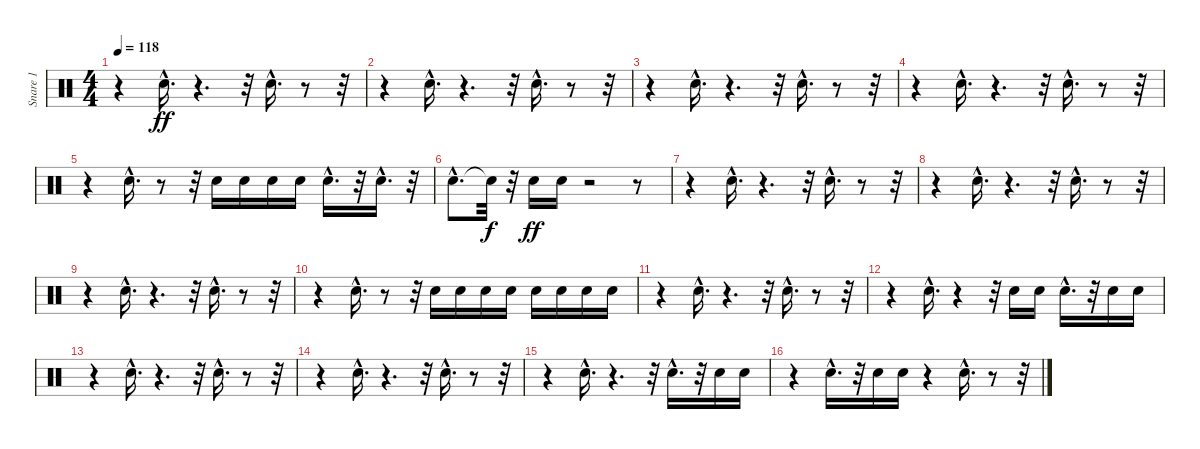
\track ("Snare 1             " "Snare 1   ") {instrument percussion}
\staff {score}
\articulation defaults
\ts (4 4)
\tempo 118
\clef neutral
\ks c
r.4{dy ff} "Snare (hit) 2"{hac}.16{d} r.4{d} r.32 "Snare (hit) 2"{hac}.16{d} r.8 r.32 |
r.4 "Snare (hit) 2"{hac}.16{d} r.4{d} r.32 "Snare (hit) 2"{hac}.16{d} r.8 r.32 |
r.4 "Snare (hit) 2"{hac}.16{d} r.4{d} r.32 "Snare (hit) 2"{hac}.16{d} r.8 r.32 |
r.4 "Snare (hit) 2"{hac}.16{d} r.4{d} r.32 "Snare (hit) 2"{hac}.16{d} r.8 r.32 |
r.4 "Snare (hit) 2"{hac}.16{d} r.8 r.32 "Snare (hit) 2".16 "Snare (hit) 2".16 "Snare (hit) 2".16 "Snare (hit) 2".16 "Snare (hit) 2"{hac}.16{d} r.32 "Snare (hit) 2"{hac}.16{d} r.32 |
"Snare (hit) 2"{hac}.8{d} "Snare (hit)"{t}.32{dy f} r.32 "Snare (hit) 2".16{dy ff} "Snare (hit) 2".16 r.2 r.8 |
r.4 "Snare (hit) 2"{hac}.16{d} r.4{d} r.32 "Snare (hit) 2"{hac}.16{d} r.8 r.32 |
r.4 "Snare (hit) 2"{hac}.16{d} r.4{d} r.32 "Snare (hit) 2"{hac}.16{d} r.8 r.32 |
r.4 "Snare (hit) 2"{hac}.16{d} r.4{d} r.32 "Snare (hit) 2"{hac}.16{d} r.8 r.32 |
r.4 "Snare (hit) 2"{hac}.16{d} r.8 r.32 "Snare (hit) 2".16 "Snare (hit) 2".16 "Snare (hit) 2".16 "Snare (hit) 2".16 "Snare (hit) 2".16 "Snare (hit) 2".16 "Snare (hit) 2".16 "Snare (hit) 2".16 |
r.4 "Snare (hit) 2"{hac}.16{d} r.4{d} r.32 "Snare (hit) 2"{hac}.16{d} r.8 r.32 |
r.4 "Snare (hit) 2"{hac}.16{d} r.4 r.32 "Snare (hit) 2".16 "Snare (hit) 2".16 "Snare (hit) 2"{hac}.16{d} r.32 "Snare (hit) 2".16 "Snare (hit) 2".16 |
r.4 "Snare (hit) 2"{hac}.16{d} r.4{d} r.32 "Snare (hit) 2"{hac}.16{d} r.8 r.32 |
r.4 "Snare (hit) 2"{hac}.16{d} r.4{d} r.32 "Snare (hit) 2"{hac}.16{d} r.8 r.32 |
r.4 "Snare (hit) 2"{hac}.16{d} r.4{d} r.32 "Snare (hit) 2"{hac}.16{d} r.32 "Snare (hit) 2".16 "Snare (hit) 2".16 |
r.4 "Snare (hit) 2"{hac}.16{d} r.32 "Snare (hit) 2".16 "Snare (hit) 2".16 r.4 "Snare (hit) 2"{hac}.16{d} r.8 r.32
